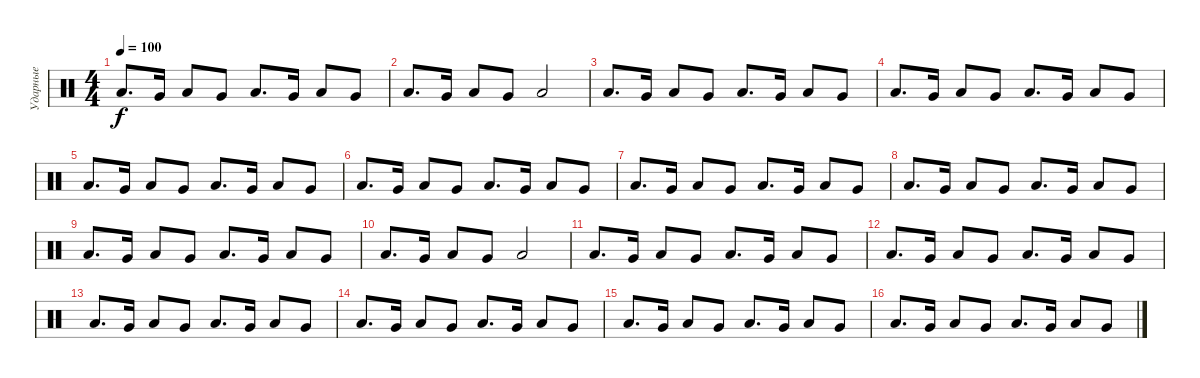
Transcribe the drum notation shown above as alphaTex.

\track ("Ударные" "Ударные") {instrument percussion}
\staff {score}
\articulation defaults
\ts (4 4)
\tempo 100
\clef neutral
\ks c "Low Floor Tom (hit)".8{d dy f} "Very Low Tom (hit)".16 "Low Floor Tom (hit)".8 "Very Low Tom (hit)".8 "Low Floor Tom (hit)".8{d} "Very Low Tom (hit)".16 "Low Floor Tom (hit)".8 "Very Low Tom (hit)".8
|
"Low Floor Tom (hit)".8{d} "Very Low Tom (hit)".16 "Low Floor Tom (hit)".8 "Very Low Tom (hit)".8 "Low Floor Tom (hit)".2 |
"Low Floor Tom (hit)".8{d} "Very Low Tom (hit)".16 "Low Floor Tom (hit)".8 "Very Low Tom (hit)".8 "Low Floor Tom (hit)".8{d} "Very Low Tom (hit)".16 "Low Floor Tom (hit)".8 "Very Low Tom (hit)".8 |
"Low Floor Tom (hit)".8{d} "Very Low Tom (hit)".16 "Low Floor Tom (hit)".8 "Very Low Tom (hit)".8 "Low Floor Tom (hit)".8{d} "Very Low Tom (hit)".16 "Low Floor Tom (hit)".8 "Very Low Tom (hit)".8 |
"Low Floor Tom (hit)".8{d} "Very Low Tom (hit)".16 "Low Floor Tom (hit)".8 "Very Low Tom (hit)".8 "Low Floor Tom (hit)".8{d} "Very Low Tom (hit)".16 "Low Floor Tom (hit)".8 "Very Low Tom (hit)".8 |
"Low Floor Tom (hit)".8{d} "Very Low Tom (hit)".16 "Low Floor Tom (hit)".8 "Very Low Tom (hit)".8 "Low Floor Tom (hit)".8{d} "Very Low Tom (hit)".16 "Low Floor Tom (hit)".8 "Very Low Tom (hit)".8 |
"Low Floor Tom (hit)".8{d} "Very Low Tom (hit)".16 "Low Floor Tom (hit)".8 "Very Low Tom (hit)".8 "Low Floor Tom (hit)".8{d} "Very Low Tom (hit)".16 "Low Floor Tom (hit)".8 "Very Low Tom (hit)".8 |
"Low Floor Tom (hit)".8{d} "Very Low Tom (hit)".16 "Low Floor Tom (hit)".8 "Very Low Tom (hit)".8 "Low Floor Tom (hit)".8{d} "Very Low Tom (hit)".16 "Low Floor Tom (hit)".8 "Very Low Tom (hit)".8 |
"Low Floor Tom (hit)".8{d} "Very Low Tom (hit)".16 "Low Floor Tom (hit)".8 "Very Low Tom (hit)".8 "Low Floor Tom (hit)".8{d} "Very Low Tom (hit)".16 "Low Floor Tom (hit)".8 "Very Low Tom (hit)".8 |
"Low Floor Tom (hit)".8{d} "Very Low Tom (hit)".16 "Low Floor Tom (hit)".8 "Very Low Tom (hit)".8 "Low Floor Tom (hit)".2 |
"Low Floor Tom (hit)".8{d} "Very Low Tom (hit)".16 "Low Floor Tom (hit)".8 "Very Low Tom (hit)".8 "Low Floor Tom (hit)".8{d} "Very Low Tom (hit)".16 "Low Floor Tom (hit)".8 "Very Low Tom (hit)".8 |
"Low Floor Tom (hit)".8{d} "Very Low Tom (hit)".16 "Low Floor Tom (hit)".8 "Very Low Tom (hit)".8 "Low Floor Tom (hit)".8{d} "Very Low Tom (hit)".16 "Low Floor Tom (hit)".8 "Very Low Tom (hit)".8 |
"Low Floor Tom (hit)".8{d} "Very Low Tom (hit)".16 "Low Floor Tom (hit)".8 "Very Low Tom (hit)".8 "Low Floor Tom (hit)".8{d} "Very Low Tom (hit)".16 "Low Floor Tom (hit)".8 "Very Low Tom (hit)".8 |
"Low Floor Tom (hit)".8{d} "Very Low Tom (hit)".16 "Low Floor Tom (hit)".8 "Very Low Tom (hit)".8 "Low Floor Tom (hit)".8{d} "Very Low Tom (hit)".16 "Low Floor Tom (hit)".8 "Very Low Tom (hit)".8 |
"Low Floor Tom (hit)".8{d} "Very Low Tom (hit)".16 "Low Floor Tom (hit)".8 "Very Low Tom (hit)".8 "Low Floor Tom (hit)".8{d} "Very Low Tom (hit)".16 "Low Floor Tom (hit)".8 "Very Low Tom (hit)".8 |
"Low Floor Tom (hit)".8{d} "Very Low Tom (hit)".16 "Low Floor Tom (hit)".8 "Very Low Tom (hit)".8 "Low Floor Tom (hit)".8{d} "Very Low Tom (hit)".16 "Low Floor Tom (hit)".8 "Very Low Tom (hit)".8
